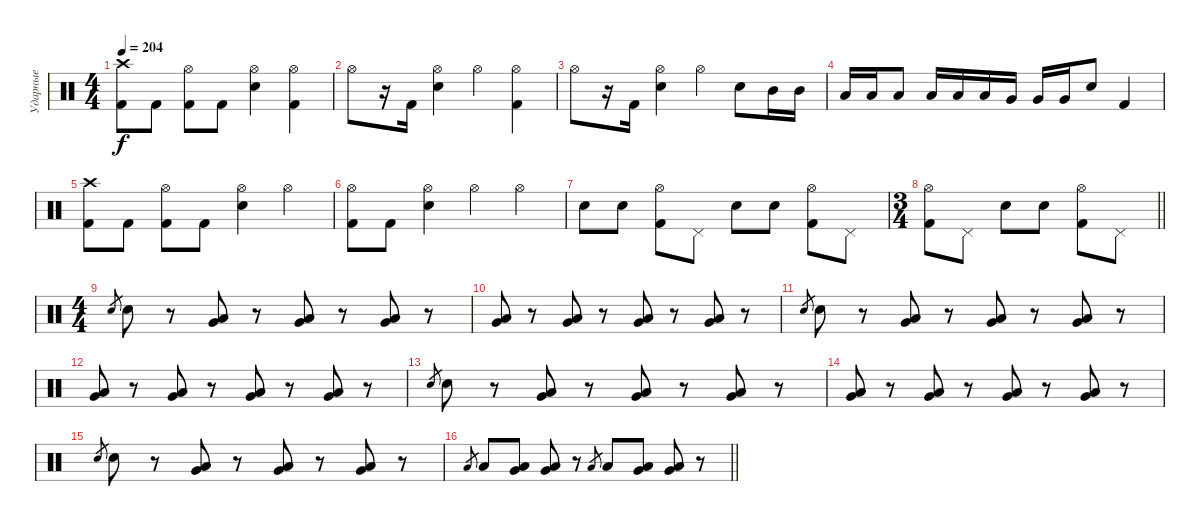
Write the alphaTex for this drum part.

\track ("Ударные" "Ударные") {instrument percussion}
\staff {score}
\articulation defaults
\ts (4 4)
\tempo 204
\clef neutral
\ks c
("Crash high (hit)" "Kick (hit) 2").8{dy f} "Kick (hit) 2".8 ("Hi-Hat (open)" "Kick (hit) 2").8 "Kick (hit) 2".8 ("Hi-Hat (open)" "Snare (hit) 2").4 ("Hi-Hat (open)" "Kick (hit) 2").4 |
"Hi-Hat (open)".8 r.16 "Kick (hit) 2".16 ("Hi-Hat (open)" "Snare (hit) 2").4 "Hi-Hat (open)".4 ("Hi-Hat (open)" "Kick (hit) 2").4 |
"Hi-Hat (open)".8 r.16 "Kick (hit) 2".16 ("Hi-Hat (open)" "Snare (hit) 2").4 "Hi-Hat (open)".4 "Snare (hit) 2".8 "Mid Tom (hit)".16 "Mid Tom (hit)".16 |
"Low Tom (hit)".16 "Low Tom (hit)".16 "Low Tom (hit)".8 "Low Tom (hit)".16 "Low Tom (hit)".16 "Low Tom (hit)".16 "Very Low Tom (hit)".16 "Very Low Tom (hit)".16 "Very Low Tom (hit)".16 "Snare (hit) 2".8 "Kick (hit) 2".4 |
("Crash high (hit)" "Kick (hit) 2").8 "Kick (hit) 2".8 ("Hi-Hat (open)" "Kick (hit) 2").8 "Kick (hit) 2".8 ("Hi-Hat (open)" "Snare (hit) 2").4 "Hi-Hat (open)".4 |
("Hi-Hat (open)" "Kick (hit) 2").8 "Kick (hit) 2".8 ("Hi-Hat (open)" "Snare (hit) 2").4 "Hi-Hat (open)".4 "Hi-Hat (open)".4 |
"Snare (hit) 2".8 "Snare (hit) 2".8 ("Hi-Hat (open)" "Kick (hit) 2").8 "Pedal Hi-Hat (hit)".8 "Snare (hit) 2".8 "Snare (hit) 2".8 ("Hi-Hat (open)" "Kick (hit) 2").8 "Pedal Hi-Hat (hit)".8 |
\ts (3 4)
\barLineRight lightlight
("Hi-Hat (open)" "Kick (hit) 2").8 "Pedal Hi-Hat (hit)".8 "Snare (hit) 2".8 "Snare (hit) 2".8 ("Hi-Hat (open)" "Kick (hit) 2").8 "Pedal Hi-Hat (hit)".8 |
\ts (4 4)
"Snare (hit) 2".8{gr} "Snare (hit) 2".8 r.8 ("Low Tom (hit)" "Very Low Tom (hit)").8 r.8 ("Low Tom (hit)" "Very Low Tom (hit)").8 r.8 ("Low Tom (hit)" "Very Low Tom (hit)").8 r.8 |
("Low Tom (hit)" "Very Low Tom (hit)").8 r.8 ("Low Tom (hit)" "Very Low Tom (hit)").8 r.8 ("Low Tom (hit)" "Very Low Tom (hit)").8 r.8 ("Low Tom (hit)" "Very Low Tom (hit)").8 r.8 |
"Snare (hit) 2".8{gr} "Snare (hit) 2".8 r.8 ("Low Tom (hit)" "Very Low Tom (hit)").8 r.8 ("Low Tom (hit)" "Very Low Tom (hit)").8 r.8 ("Low Tom (hit)" "Very Low Tom (hit)").8 r.8 |
("Low Tom (hit)" "Very Low Tom (hit)").8 r.8 ("Low Tom (hit)" "Very Low Tom (hit)").8 r.8 ("Low Tom (hit)" "Very Low Tom (hit)").8 r.8 ("Low Tom (hit)" "Very Low Tom (hit)").8 r.8 |
"Snare (hit) 2".8{gr} "Snare (hit) 2".8 r.8 ("Low Tom (hit)" "Very Low Tom (hit)").8 r.8 ("Low Tom (hit)" "Very Low Tom (hit)").8 r.8 ("Low Tom (hit)" "Very Low Tom (hit)").8 r.8 |
("Low Tom (hit)" "Very Low Tom (hit)").8 r.8 ("Low Tom (hit)" "Very Low Tom (hit)").8 r.8 ("Low Tom (hit)" "Very Low Tom (hit)").8 r.8 ("Low Tom (hit)" "Very Low Tom (hit)").8 r.8 |
"Snare (hit) 2".8{gr} "Snare (hit) 2".8 r.8 ("Low Tom (hit)" "Very Low Tom (hit)").8 r.8 ("Low Tom (hit)" "Very Low Tom (hit)").8 r.8 ("Low Tom (hit)" "Very Low Tom (hit)").8 r.8 |
\barLineRight lightlight "Low Tom (hit)".8{gr} "Low Tom (hit)".8
("Low Tom (hit)" "Very Low Tom (hit)").8 ("Low Tom (hit)" "Very Low Tom (hit)").8 r.8 "Low Tom (hit)".8{gr} "Low Tom (hit)".8 ("Low Tom (hit)" "Very Low Tom (hit)").8 ("Low Tom (hit)" "Very Low Tom (hit)").8 r.8
